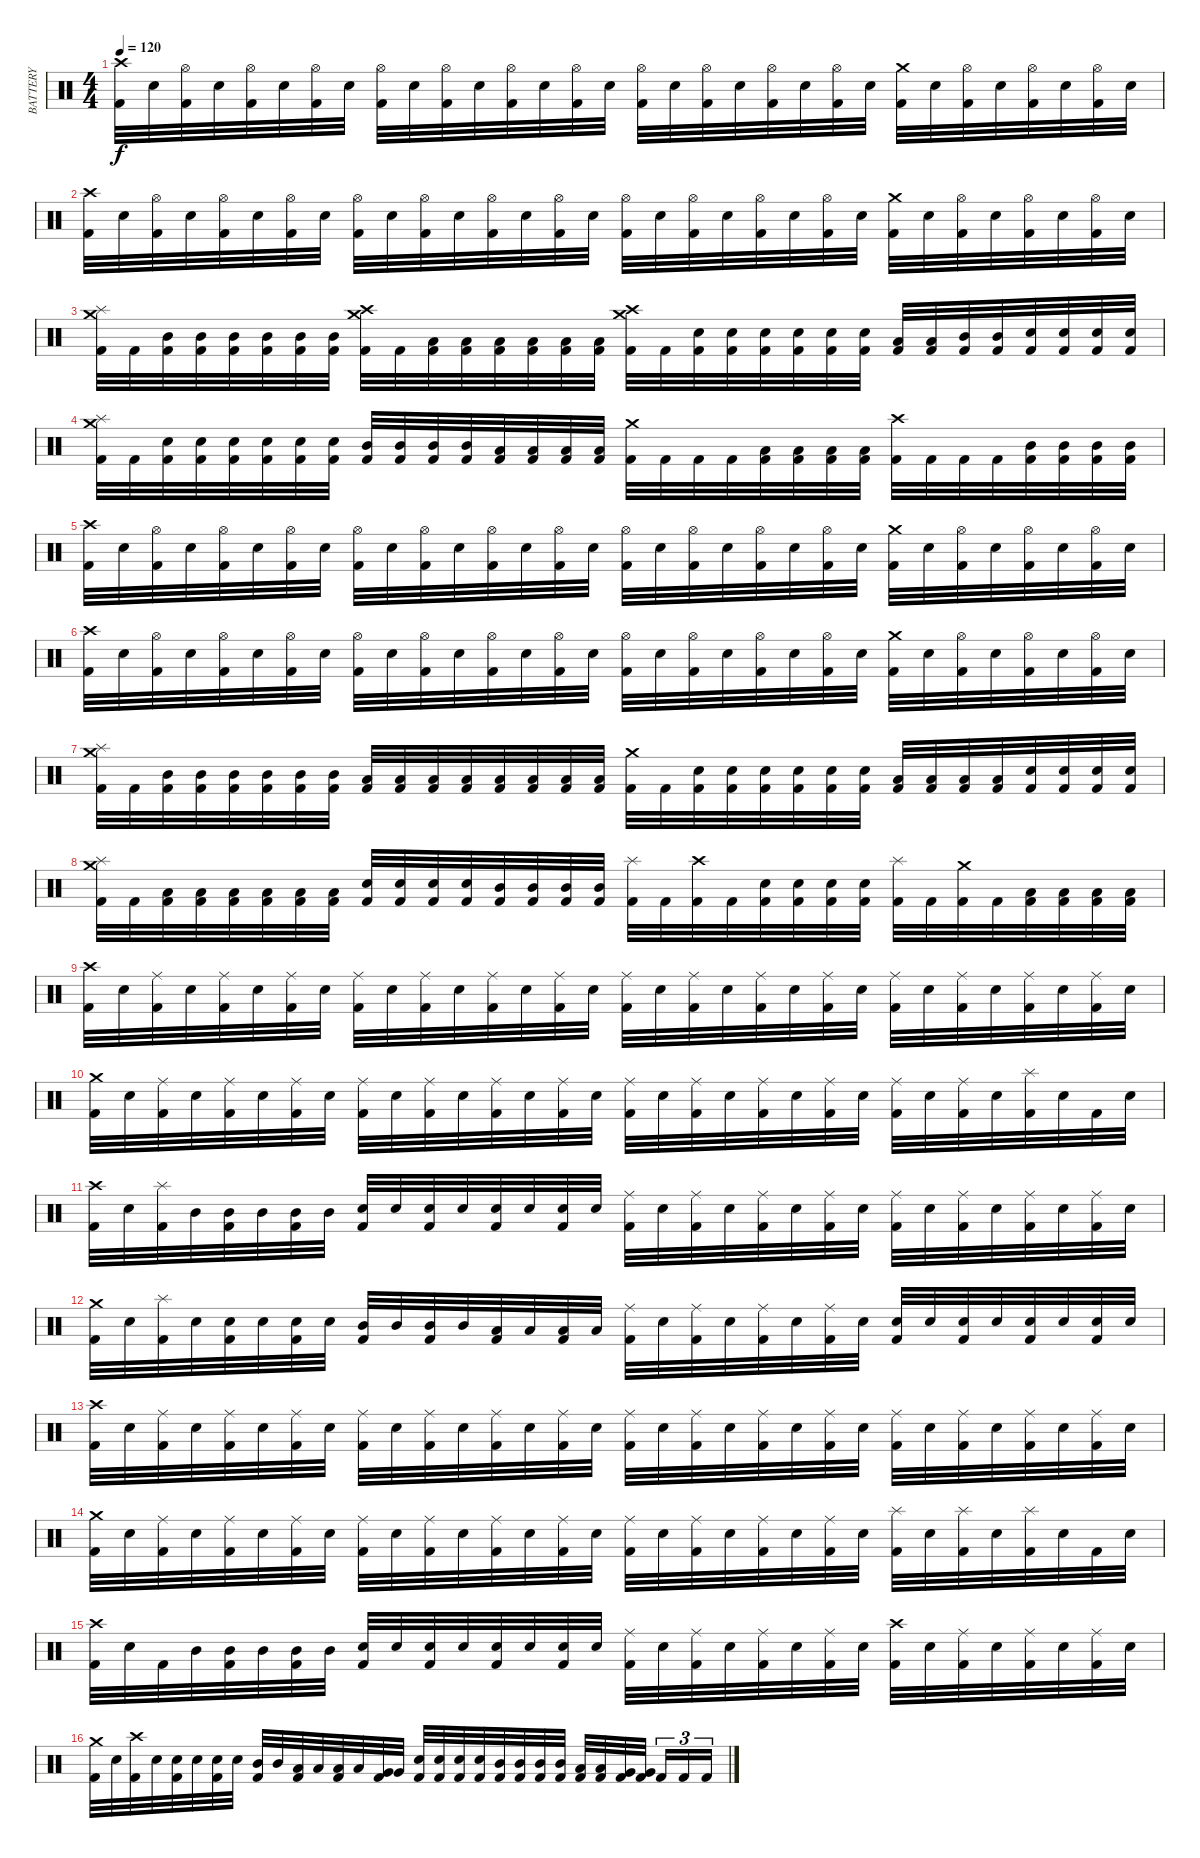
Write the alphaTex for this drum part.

\track ("BATTERY" "BATTERY") {instrument percussion}
\staff {score}
\articulation defaults
\ts (4 4)
\tempo 120
\clef neutral
\ks c
("Kick (hit) 2" "Crash high (hit)").32{dy f} "Snare (hit) 2".32 ("Kick (hit) 2" "Hi-Hat (open)").32 "Snare (hit) 2".32 ("Kick (hit) 2" "Hi-Hat (open)").32 "Snare (hit) 2".32 ("Kick (hit) 2" "Hi-Hat (open)").32 "Snare (hit) 2".32 ("Kick (hit) 2" "Hi-Hat (open)").32 "Snare (hit) 2".32 ("Kick (hit) 2" "Hi-Hat (open)").32 "Snare (hit) 2".32 ("Kick (hit) 2" "Hi-Hat (open)").32 "Snare (hit) 2".32 ("Kick (hit) 2" "Hi-Hat (open)").32 "Snare (hit) 2".32 ("Kick (hit) 2" "Hi-Hat (open)").32 "Snare (hit) 2".32 ("Kick (hit) 2" "Hi-Hat (open)").32 "Snare (hit) 2".32 ("Kick (hit) 2" "Hi-Hat (open)").32 "Snare (hit) 2".32 ("Kick (hit) 2" "Hi-Hat (open)").32 "Snare (hit) 2".32 ("Kick (hit) 2" "Crash medium (hit)").32 "Snare (hit) 2".32 ("Kick (hit) 2" "Hi-Hat (open)").32 "Snare (hit) 2".32 ("Kick (hit) 2" "Hi-Hat (open)").32 "Snare (hit) 2".32 ("Kick (hit) 2" "Hi-Hat (open)").32 "Snare (hit) 2".32 |
("Kick (hit) 2" "Crash high (hit)").32 "Snare (hit) 2".32 ("Kick (hit) 2" "Hi-Hat (open)").32 "Snare (hit) 2".32 ("Kick (hit) 2" "Hi-Hat (open)").32 "Snare (hit) 2".32 ("Kick (hit) 2" "Hi-Hat (open)").32 "Snare (hit) 2".32 ("Kick (hit) 2" "Hi-Hat (open)").32 "Snare (hit) 2".32 ("Kick (hit) 2" "Hi-Hat (open)").32 "Snare (hit) 2".32 ("Kick (hit) 2" "Hi-Hat (open)").32 "Snare (hit) 2".32 ("Kick (hit) 2" "Hi-Hat (open)").32 "Snare (hit) 2".32 ("Kick (hit) 2" "Hi-Hat (open)").32 "Snare (hit) 2".32 ("Kick (hit) 2" "Hi-Hat (open)").32 "Snare (hit) 2".32 ("Kick (hit) 2" "Hi-Hat (open)").32 "Snare (hit) 2".32 ("Kick (hit) 2" "Hi-Hat (open)").32 "Snare (hit) 2".32 ("Kick (hit) 2" "Crash medium (hit)").32 "Snare (hit) 2".32 ("Kick (hit) 2" "Hi-Hat (open)").32 "Snare (hit) 2".32 ("Kick (hit) 2" "Hi-Hat (open)").32 "Snare (hit) 2".32 ("Kick (hit) 2" "Hi-Hat (open)").32 "Snare (hit) 2".32 |
("Kick (hit) 2" "Splash (hit)" "Crash medium (hit)").32 "Kick (hit) 2".32 ("Kick (hit) 2" "Mid Tom (hit)").32 ("Kick (hit) 2" "Mid Tom (hit)").32 ("Kick (hit) 2" "Mid Tom (hit)").32 ("Kick (hit) 2" "Mid Tom (hit)").32 ("Kick (hit) 2" "Mid Tom (hit)").32 ("Kick (hit) 2" "Mid Tom (hit)").32 ("Kick (hit) 2" "Crash medium (hit)" "Crash high (hit)").32 "Kick (hit) 2".32 ("Kick (hit) 2" "Low Tom (hit)").32 ("Kick (hit) 2" "Low Tom (hit)").32 ("Kick (hit) 2" "Low Tom (hit)").32 ("Kick (hit) 2" "Low Tom (hit)").32 ("Kick (hit) 2" "Low Tom (hit)").32 ("Kick (hit) 2" "Low Tom (hit)").32 ("Kick (hit) 2" "Crash high (hit)" "Crash medium (hit)").32 "Kick (hit) 2".32 ("Kick (hit) 2" "Snare (hit) 2").32 ("Kick (hit) 2" "Snare (hit) 2").32 ("Kick (hit) 2" "Snare (hit) 2").32 ("Kick (hit) 2" "Snare (hit) 2").32 ("Kick (hit) 2" "Snare (hit) 2").32 ("Kick (hit) 2" "Snare (hit) 2").32 ("Kick (hit) 2" "Low Tom (hit)").32 ("Kick (hit) 2" "Low Tom (hit)").32 ("Kick (hit) 2" "Mid Tom (hit)").32 ("Kick (hit) 2" "Mid Tom (hit)").32 ("Kick (hit) 2" "Snare (hit) 2").32 ("Kick (hit) 2" "Snare (hit) 2").32 ("Kick (hit) 2" "Snare (hit) 2").32 ("Kick (hit) 2" "Snare (hit) 2").32 |
("Kick (hit) 2" "Splash (hit)" "Crash medium (hit)").32 "Kick (hit) 2".32 ("Kick (hit) 2" "Snare (hit) 2").32 ("Kick (hit) 2" "Snare (hit) 2").32 ("Kick (hit) 2" "Snare (hit) 2").32 ("Kick (hit) 2" "Snare (hit) 2").32 ("Kick (hit) 2" "Snare (hit) 2").32 ("Kick (hit) 2" "Snare (hit) 2").32 ("Kick (hit) 2" "Mid Tom (hit)").32 ("Kick (hit) 2" "Mid Tom (hit)").32 ("Kick (hit) 2" "Mid Tom (hit)").32 ("Kick (hit) 2" "Mid Tom (hit)").32 ("Kick (hit) 2" "Low Tom (hit)").32 ("Kick (hit) 2" "Low Tom (hit)").32 ("Kick (hit) 2" "Low Tom (hit)").32 ("Kick (hit) 2" "Low Tom (hit)").32 ("Kick (hit) 2" "Crash medium (hit)").32 "Kick (hit) 2".32 "Kick (hit) 2".32 "Kick (hit) 2".32 ("Kick (hit) 2" "Low Tom (hit)").32 ("Kick (hit) 2" "Low Tom (hit)").32 ("Kick (hit) 2" "Low Tom (hit)").32 ("Kick (hit) 2" "Low Tom (hit)").32 ("Kick (hit) 2" "Crash high (hit)").32 "Kick (hit) 2".32 "Kick (hit) 2".32 "Kick (hit) 2".32 ("Kick (hit) 2" "Mid Tom (hit)").32 ("Kick (hit) 2" "Mid Tom (hit)").32 ("Kick (hit) 2" "Mid Tom (hit)").32 ("Kick (hit) 2" "Mid Tom (hit)").32 |
("Kick (hit) 2" "Crash high (hit)").32 "Snare (hit) 2".32 ("Kick (hit) 2" "Hi-Hat (open)").32 "Snare (hit) 2".32 ("Kick (hit) 2" "Hi-Hat (open)").32 "Snare (hit) 2".32 ("Kick (hit) 2" "Hi-Hat (open)").32 "Snare (hit) 2".32 ("Kick (hit) 2" "Hi-Hat (open)").32 "Snare (hit) 2".32 ("Kick (hit) 2" "Hi-Hat (open)").32 "Snare (hit) 2".32 ("Kick (hit) 2" "Hi-Hat (open)").32 "Snare (hit) 2".32 ("Kick (hit) 2" "Hi-Hat (open)").32 "Snare (hit) 2".32 ("Kick (hit) 2" "Hi-Hat (open)").32 "Snare (hit) 2".32 ("Kick (hit) 2" "Hi-Hat (open)").32 "Snare (hit) 2".32 ("Kick (hit) 2" "Hi-Hat (open)").32 "Snare (hit) 2".32 ("Kick (hit) 2" "Hi-Hat (open)").32 "Snare (hit) 2".32 ("Kick (hit) 2" "Crash medium (hit)").32 "Snare (hit) 2".32 ("Kick (hit) 2" "Hi-Hat (open)").32 "Snare (hit) 2".32 ("Kick (hit) 2" "Hi-Hat (open)").32 "Snare (hit) 2".32 ("Kick (hit) 2" "Hi-Hat (open)").32 "Snare (hit) 2".32 |
("Kick (hit) 2" "Crash high (hit)").32 "Snare (hit) 2".32 ("Kick (hit) 2" "Hi-Hat (open)").32 "Snare (hit) 2".32 ("Kick (hit) 2" "Hi-Hat (open)").32 "Snare (hit) 2".32 ("Kick (hit) 2" "Hi-Hat (open)").32 "Snare (hit) 2".32 ("Kick (hit) 2" "Hi-Hat (open)").32 "Snare (hit) 2".32 ("Kick (hit) 2" "Hi-Hat (open)").32 "Snare (hit) 2".32 ("Kick (hit) 2" "Hi-Hat (open)").32 "Snare (hit) 2".32 ("Kick (hit) 2" "Hi-Hat (open)").32 "Snare (hit) 2".32 ("Kick (hit) 2" "Hi-Hat (open)").32 "Snare (hit) 2".32 ("Kick (hit) 2" "Hi-Hat (open)").32 "Snare (hit) 2".32 ("Kick (hit) 2" "Hi-Hat (open)").32 "Snare (hit) 2".32 ("Kick (hit) 2" "Hi-Hat (open)").32 "Snare (hit) 2".32 ("Kick (hit) 2" "Crash medium (hit)").32 "Snare (hit) 2".32 ("Kick (hit) 2" "Hi-Hat (open)").32 "Snare (hit) 2".32 ("Kick (hit) 2" "Hi-Hat (open)").32 "Snare (hit) 2".32 ("Kick (hit) 2" "Hi-Hat (open)").32 "Snare (hit) 2".32 |
("Kick (hit) 2" "Splash (hit)" "Crash medium (hit)").32 "Kick (hit) 2".32 ("Kick (hit) 2" "Mid Tom (hit)").32 ("Kick (hit) 2" "Mid Tom (hit)").32 ("Kick (hit) 2" "Mid Tom (hit)").32 ("Kick (hit) 2" "Mid Tom (hit)").32 ("Kick (hit) 2" "Mid Tom (hit)").32 ("Kick (hit) 2" "Mid Tom (hit)").32 ("Kick (hit) 2" "Low Tom (hit)").32 ("Kick (hit) 2" "Low Tom (hit)").32 ("Kick (hit) 2" "Low Tom (hit)").32 ("Kick (hit) 2" "Low Tom (hit)").32 ("Kick (hit) 2" "Low Tom (hit)").32 ("Kick (hit) 2" "Low Tom (hit)").32 ("Kick (hit) 2" "Low Tom (hit)").32 ("Kick (hit) 2" "Low Tom (hit)").32 ("Kick (hit) 2" "Crash medium (hit)").32 "Kick (hit) 2".32 ("Kick (hit) 2" "Snare (hit) 2").32 ("Kick (hit) 2" "Snare (hit) 2").32 ("Kick (hit) 2" "Snare (hit) 2").32 ("Kick (hit) 2" "Snare (hit) 2").32 ("Kick (hit) 2" "Snare (hit) 2").32 ("Kick (hit) 2" "Snare (hit) 2").32 ("Kick (hit) 2" "Low Tom (hit)").32 ("Kick (hit) 2" "Low Tom (hit)").32 ("Kick (hit) 2" "Low Tom (hit)").32 ("Kick (hit) 2" "Low Tom (hit)").32 ("Kick (hit) 2" "Snare (hit) 2").32 ("Kick (hit) 2" "Snare (hit) 2").32 ("Kick (hit) 2" "Snare (hit) 2").32 ("Kick (hit) 2" "Snare (hit) 2").32 |
("Kick (hit) 2" "Splash (hit)" "Crash medium (hit)").32 "Kick (hit) 2".32 ("Kick (hit) 2" "Low Tom (hit)").32 ("Kick (hit) 2" "Low Tom (hit)").32 ("Kick (hit) 2" "Low Tom (hit)").32 ("Kick (hit) 2" "Low Tom (hit)").32 ("Kick (hit) 2" "Low Tom (hit)").32 ("Kick (hit) 2" "Low Tom (hit)").32 ("Kick (hit) 2" "Snare (hit) 2").32 ("Kick (hit) 2" "Snare (hit) 2").32 ("Kick (hit) 2" "Snare (hit) 2").32 ("Kick (hit) 2" "Snare (hit) 2").32 ("Kick (hit) 2" "Mid Tom (hit)").32 ("Kick (hit) 2" "Mid Tom (hit)").32 ("Kick (hit) 2" "Mid Tom (hit)").32 ("Kick (hit) 2" "Mid Tom (hit)").32 ("Kick (hit) 2" "Splash (hit)").32 "Kick (hit) 2".32 ("Kick (hit) 2" "Crash high (hit)").32 "Kick (hit) 2".32 ("Kick (hit) 2" "Snare (hit) 2").32 ("Kick (hit) 2" "Snare (hit) 2").32 ("Kick (hit) 2" "Snare (hit) 2").32 ("Kick (hit) 2" "Snare (hit) 2").32 ("Kick (hit) 2" "Splash (hit)").32 "Kick (hit) 2".32 ("Kick (hit) 2" "Crash medium (hit)").32 "Kick (hit) 2".32 ("Kick (hit) 2" "Low Tom (hit)").32 ("Kick (hit) 2" "Low Tom (hit)").32 ("Kick (hit) 2" "Low Tom (hit)").32 ("Kick (hit) 2" "Low Tom (hit)").32 |
("Kick (hit) 2" "Crash high (hit)").32 "Snare (hit) 2".32 ("Kick (hit) 2" "Ride (middle)").32 "Snare (hit) 2".32 ("Kick (hit) 2" "Ride (middle)").32 "Snare (hit) 2".32 ("Kick (hit) 2" "Ride (middle)").32 "Snare (hit) 2".32 ("Kick (hit) 2" "Ride (middle)").32 "Snare (hit) 2".32 ("Kick (hit) 2" "Ride (middle)").32 "Snare (hit) 2".32 ("Kick (hit) 2" "Ride (middle)").32 "Snare (hit) 2".32 ("Kick (hit) 2" "Ride (middle)").32 "Snare (hit) 2".32 ("Kick (hit) 2" "Ride (middle)").32 "Snare (hit) 2".32 ("Kick (hit) 2" "Ride (middle)").32 "Snare (hit) 2".32 ("Kick (hit) 2" "Ride (middle)").32 "Snare (hit) 2".32 ("Kick (hit) 2" "Ride (middle)").32 "Snare (hit) 2".32 ("Kick (hit) 2" "Ride (middle)").32 "Snare (hit) 2".32 ("Kick (hit) 2" "Ride (middle)").32 "Snare (hit) 2".32 ("Kick (hit) 2" "Ride (middle)").32 "Snare (hit) 2".32 ("Kick (hit) 2" "Ride (middle)").32 "Snare (hit) 2".32 |
("Kick (hit) 2" "Crash medium (hit)").32 "Snare (hit) 2".32 ("Kick (hit) 2" "Ride (middle)").32 "Snare (hit) 2".32 ("Kick (hit) 2" "Ride (middle)").32 "Snare (hit) 2".32 ("Kick (hit) 2" "Ride (middle)").32 "Snare (hit) 2".32 ("Kick (hit) 2" "Ride (middle)").32 "Snare (hit) 2".32 ("Kick (hit) 2" "Ride (middle)").32 "Snare (hit) 2".32 ("Kick (hit) 2" "Ride (middle)").32 "Snare (hit) 2".32 ("Kick (hit) 2" "Ride (middle)").32 "Snare (hit) 2".32 ("Kick (hit) 2" "Ride (middle)").32 "Snare (hit) 2".32 ("Kick (hit) 2" "Ride (middle)").32 "Snare (hit) 2".32 ("Kick (hit) 2" "Ride (middle)").32 "Snare (hit) 2".32 ("Kick (hit) 2" "Ride (middle)").32 "Snare (hit) 2".32 ("Kick (hit) 2" "Ride (middle)").32 "Snare (hit) 2".32 ("Kick (hit) 2" "Ride (middle)").32 "Snare (hit) 2".32 ("Kick (hit) 2" "Splash (hit)").32 "Snare (hit) 2".32 "Kick (hit) 2".32 "Snare (hit) 2".32 |
("Kick (hit) 2" "Crash high (hit)").32 "Snare (hit) 2".32 ("Kick (hit) 2" "Splash (hit)").32 "Mid Tom (hit)".32 ("Kick (hit) 2" "Mid Tom (hit)").32 "Mid Tom (hit)".32 ("Kick (hit) 2" "Mid Tom (hit)").32 "Mid Tom (hit)".32 ("Kick (hit) 2" "Snare (hit) 2").32 "Snare (hit) 2".32 ("Kick (hit) 2" "Snare (hit) 2").32 "Snare (hit) 2".32 ("Kick (hit) 2" "Snare (hit) 2").32 "Snare (hit) 2".32 ("Kick (hit) 2" "Snare (hit) 2").32 "Snare (hit) 2".32 ("Kick (hit) 2" "Ride (middle)").32 "Snare (hit) 2".32 ("Kick (hit) 2" "Ride (middle)").32 "Snare (hit) 2".32 ("Kick (hit) 2" "Ride (middle)").32 "Snare (hit) 2".32 ("Kick (hit) 2" "Ride (middle)").32 "Snare (hit) 2".32 ("Kick (hit) 2" "Ride (middle)").32 "Snare (hit) 2".32 ("Kick (hit) 2" "Ride (middle)").32 "Snare (hit) 2".32 ("Kick (hit) 2" "Ride (middle)").32 "Snare (hit) 2".32 ("Kick (hit) 2" "Ride (middle)").32 "Snare (hit) 2".32 |
("Kick (hit) 2" "Crash medium (hit)").32 "Snare (hit) 2".32 ("Kick (hit) 2" "Splash (hit)").32 "Snare (hit) 2".32 ("Kick (hit) 2" "Snare (hit) 2").32 "Snare (hit) 2".32 ("Kick (hit) 2" "Snare (hit) 2").32 "Snare (hit) 2".32 ("Kick (hit) 2" "Mid Tom (hit)").32 "Mid Tom (hit)".32 ("Kick (hit) 2" "Mid Tom (hit)").32 "Mid Tom (hit)".32 ("Kick (hit) 2" "Low Tom (hit)").32 "Low Tom (hit)".32 ("Kick (hit) 2" "Low Tom (hit)").32 "Low Tom (hit)".32 ("Kick (hit) 2" "Ride (middle)").32 "Snare (hit) 2".32 ("Kick (hit) 2" "Ride (middle)").32 "Snare (hit) 2".32 ("Kick (hit) 2" "Ride (middle)").32 "Snare (hit) 2".32 ("Kick (hit) 2" "Ride (middle)").32 "Snare (hit) 2".32 ("Kick (hit) 2" "Snare (hit) 2").32 "Snare (hit) 2".32 ("Kick (hit) 2" "Snare (hit) 2").32 "Snare (hit) 2".32 ("Kick (hit) 2" "Snare (hit) 2").32 "Snare (hit) 2".32 ("Kick (hit) 2" "Snare (hit) 2").32 "Snare (hit) 2".32 |
("Kick (hit) 2" "Crash high (hit)").32 "Snare (hit) 2".32 ("Kick (hit) 2" "Ride (middle)").32 "Snare (hit) 2".32 ("Kick (hit) 2" "Ride (middle)").32 "Snare (hit) 2".32 ("Kick (hit) 2" "Ride (middle)").32 "Snare (hit) 2".32 ("Kick (hit) 2" "Ride (middle)").32 "Snare (hit) 2".32 ("Kick (hit) 2" "Ride (middle)").32 "Snare (hit) 2".32 ("Kick (hit) 2" "Ride (middle)").32 "Snare (hit) 2".32 ("Kick (hit) 2" "Ride (middle)").32 "Snare (hit) 2".32 ("Kick (hit) 2" "Ride (middle)").32 "Snare (hit) 2".32 ("Kick (hit) 2" "Ride (middle)").32 "Snare (hit) 2".32 ("Kick (hit) 2" "Ride (middle)").32 "Snare (hit) 2".32 ("Kick (hit) 2" "Ride (middle)").32 "Snare (hit) 2".32 ("Kick (hit) 2" "Ride (middle)").32 "Snare (hit) 2".32 ("Kick (hit) 2" "Ride (middle)").32 "Snare (hit) 2".32 ("Kick (hit) 2" "Ride (middle)").32 "Snare (hit) 2".32 ("Kick (hit) 2" "Ride (middle)").32 "Snare (hit) 2".32 |
("Kick (hit) 2" "Crash medium (hit)").32 "Snare (hit) 2".32 ("Kick (hit) 2" "Ride (middle)").32 "Snare (hit) 2".32 ("Kick (hit) 2" "Ride (middle)").32 "Snare (hit) 2".32 ("Kick (hit) 2" "Ride (middle)").32 "Snare (hit) 2".32 ("Kick (hit) 2" "Ride (middle)").32 "Snare (hit) 2".32 ("Kick (hit) 2" "Ride (middle)").32 "Snare (hit) 2".32 ("Kick (hit) 2" "Ride (middle)").32 "Snare (hit) 2".32 ("Kick (hit) 2" "Ride (middle)").32 "Snare (hit) 2".32 ("Kick (hit) 2" "Ride (middle)").32 "Snare (hit) 2".32 ("Kick (hit) 2" "Ride (middle)").32 "Snare (hit) 2".32 ("Kick (hit) 2" "Ride (middle)").32 "Snare (hit) 2".32 ("Kick (hit) 2" "Ride (middle)").32 "Snare (hit) 2".32 ("Kick (hit) 2" "Splash (hit)").32 "Snare (hit) 2".32 ("Kick (hit) 2" "Splash (hit)").32 "Snare (hit) 2".32 ("Kick (hit) 2" "Splash (hit)").32 "Snare (hit) 2".32 "Kick (hit) 2".32 "Snare (hit) 2".32 |
("Kick (hit) 2" "Crash high (hit)").32 "Snare (hit) 2".32 "Kick (hit) 2".32 "Mid Tom (hit)".32 ("Kick (hit) 2" "Mid Tom (hit)").32 "Mid Tom (hit)".32 ("Kick (hit) 2" "Mid Tom (hit)").32 "Mid Tom (hit)".32 ("Kick (hit) 2" "Snare (hit) 2").32 "Snare (hit) 2".32 ("Kick (hit) 2" "Snare (hit) 2").32 "Snare (hit) 2".32 ("Kick (hit) 2" "Snare (hit) 2").32 "Snare (hit) 2".32 ("Kick (hit) 2" "Snare (hit) 2").32 "Snare (hit) 2".32 ("Kick (hit) 2" "Ride (middle)").32 "Snare (hit) 2".32 ("Kick (hit) 2" "Ride (middle)").32 "Snare (hit) 2".32 ("Kick (hit) 2" "Ride (middle)").32 "Snare (hit) 2".32 ("Kick (hit) 2" "Ride (middle)").32 "Snare (hit) 2".32 ("Kick (hit) 2" "Crash high (hit)").32 "Snare (hit) 2".32 ("Kick (hit) 2" "Ride (middle)").32 "Snare (hit) 2".32 ("Kick (hit) 2" "Ride (middle)").32 "Snare (hit) 2".32 ("Kick (hit) 2" "Ride (middle)").32 "Snare (hit) 2".32 |
("Kick (hit) 2" "Crash medium (hit)").32 "Snare (hit) 2".32 ("Kick (hit) 2" "Crash high (hit)").32 "Snare (hit) 2".32 ("Kick (hit) 2" "Snare (hit) 2").32 "Snare (hit) 2".32 ("Kick (hit) 2" "Snare (hit) 2").32 "Snare (hit) 2".32 ("Kick (hit) 2" "Mid Tom (hit)").32 "Mid Tom (hit)".32 ("Kick (hit) 2" "Low Tom (hit)").32 "Low Tom (hit)".32 ("Kick (hit) 2" "Low Tom (hit)").32 "Low Tom (hit)".32 ("Kick (hit) 2" "Very Low Tom (hit)").32 "Very Low Tom (hit)".32 ("Kick (hit) 2" "Snare (hit) 2").32 ("Kick (hit) 2" "Snare (hit) 2").32 ("Kick (hit) 2" "Snare (hit) 2").32 ("Kick (hit) 2" "Snare (hit) 2").32 ("Kick (hit) 2" "Mid Tom (hit)").32 ("Kick (hit) 2" "Mid Tom (hit)").32 ("Kick (hit) 2" "Mid Tom (hit)").32 ("Kick (hit) 2" "Mid Tom (hit)").32 ("Kick (hit) 2" "Low Tom (hit)").32 ("Kick (hit) 2" "Low Tom (hit)").32 ("Kick (hit) 2" "Very Low Tom (hit)").32 ("Kick (hit) 2" "Very Low Tom (hit)").32 "Kick (hit) 2".16{tu (3 2)} "Kick (hit) 2".16{tu (3 2)} "Kick (hit) 2".16{tu (3 2)}
